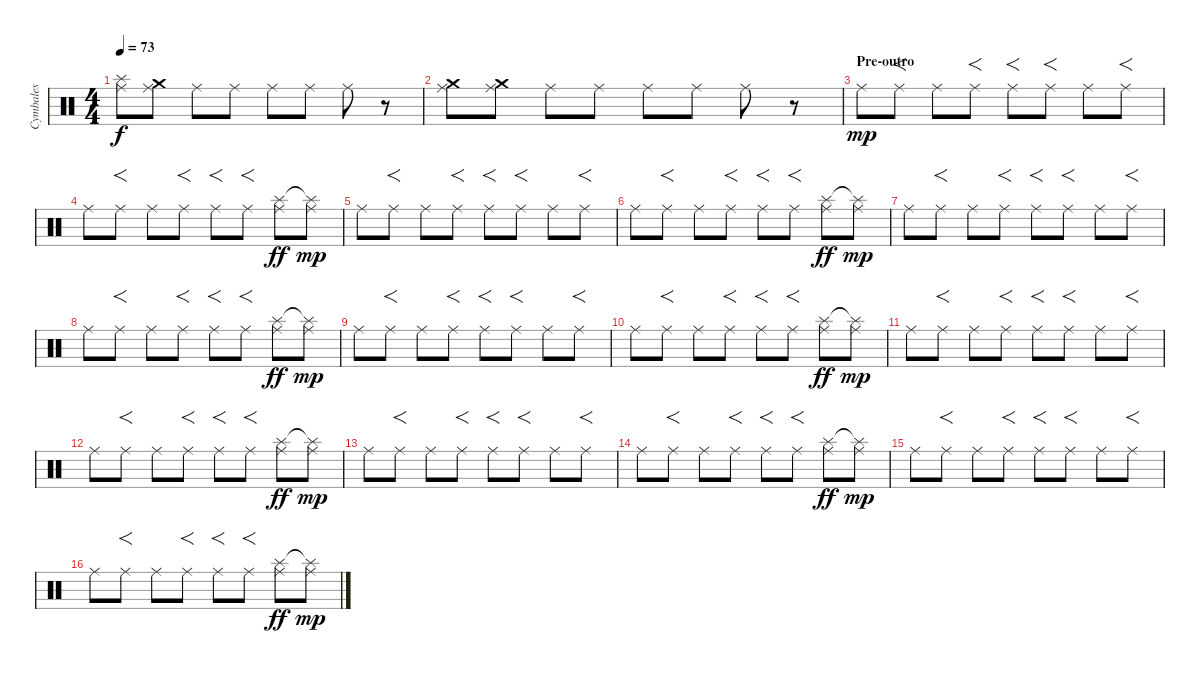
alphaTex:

\track ("Cymbales" "Cymbales") {instrument percussion}
\staff {score}
\articulation defaults
\ts (4 4)
\tempo 73
\clef neutral
\ks c
("Ride (middle)" "Splash (hit)").8{dy f} ("Ride (middle)" "Crash medium (hit)").8 "Ride (middle)".8 "Ride (middle)".8 "Ride (middle)".8 "Ride (middle)".8 "Ride (middle)".8 r.8 |
("Ride (middle)" "Crash medium (hit)").8 ("Ride (middle)" "Crash medium (hit)").8 "Ride (middle)".8 "Ride (middle)".8 "Ride (middle)".8 "Ride (middle)".8 "Ride (middle)".8 r.8 |
\section ("" "Pre-outro")
"Ride (middle)".8{dy mp} "Ride (middle)".8{f} "Ride (middle)".8 "Ride (middle)".8{f} "Ride (middle)".8{f} "Ride (middle)".8{f} "Ride (middle)".8 "Ride (middle)".8{f} |
"Ride (middle)".8 "Ride (middle)".8{f} "Ride (middle)".8 "Ride (middle)".8{f} "Ride (middle)".8{f} "Ride (middle)".8{f} ("Ride (middle)" "Splash (hit)").8{dy ff} ("Ride (middle)" "Splash (hit)"{t}).8{dy mp} |
"Ride (middle)".8 "Ride (middle)".8{f} "Ride (middle)".8 "Ride (middle)".8{f} "Ride (middle)".8{f} "Ride (middle)".8{f} "Ride (middle)".8 "Ride (middle)".8{f} |
"Ride (middle)".8 "Ride (middle)".8{f} "Ride (middle)".8 "Ride (middle)".8{f} "Ride (middle)".8{f} "Ride (middle)".8{f} ("Ride (middle)" "Splash (hit)").8{dy ff} ("Ride (middle)" "Splash (hit)"{t}).8{dy mp} |
"Ride (middle)".8 "Ride (middle)".8{f} "Ride (middle)".8 "Ride (middle)".8{f} "Ride (middle)".8{f} "Ride (middle)".8{f} "Ride (middle)".8 "Ride (middle)".8{f} |
"Ride (middle)".8 "Ride (middle)".8{f} "Ride (middle)".8 "Ride (middle)".8{f} "Ride (middle)".8{f} "Ride (middle)".8{f} ("Ride (middle)" "Splash (hit)").8{dy ff} ("Ride (middle)" "Splash (hit)"{t}).8{dy mp} |
"Ride (middle)".8 "Ride (middle)".8{f} "Ride (middle)".8 "Ride (middle)".8{f} "Ride (middle)".8{f} "Ride (middle)".8{f} "Ride (middle)".8 "Ride (middle)".8{f} |
"Ride (middle)".8 "Ride (middle)".8{f} "Ride (middle)".8 "Ride (middle)".8{f} "Ride (middle)".8{f} "Ride (middle)".8{f} ("Ride (middle)" "Splash (hit)").8{dy ff} ("Ride (middle)" "Splash (hit)"{t}).8{dy mp} |
"Ride (middle)".8 "Ride (middle)".8{f} "Ride (middle)".8 "Ride (middle)".8{f} "Ride (middle)".8{f} "Ride (middle)".8{f} "Ride (middle)".8 "Ride (middle)".8{f} |
"Ride (middle)".8 "Ride (middle)".8{f} "Ride (middle)".8 "Ride (middle)".8{f} "Ride (middle)".8{f} "Ride (middle)".8{f} ("Ride (middle)" "Splash (hit)").8{dy ff} ("Ride (middle)" "Splash (hit)"{t}).8{dy mp} |
"Ride (middle)".8 "Ride (middle)".8{f} "Ride (middle)".8 "Ride (middle)".8{f} "Ride (middle)".8{f} "Ride (middle)".8{f} "Ride (middle)".8 "Ride (middle)".8{f} |
"Ride (middle)".8 "Ride (middle)".8{f} "Ride (middle)".8 "Ride (middle)".8{f} "Ride (middle)".8{f} "Ride (middle)".8{f} ("Ride (middle)" "Splash (hit)").8{dy ff} ("Ride (middle)" "Splash (hit)"{t}).8{dy mp} |
"Ride (middle)".8 "Ride (middle)".8{f} "Ride (middle)".8 "Ride (middle)".8{f} "Ride (middle)".8{f} "Ride (middle)".8{f} "Ride (middle)".8 "Ride (middle)".8{f} |
"Ride (middle)".8 "Ride (middle)".8{f} "Ride (middle)".8 "Ride (middle)".8{f} "Ride (middle)".8{f} "Ride (middle)".8{f} ("Ride (middle)" "Splash (hit)").8{dy ff} ("Ride (middle)" "Splash (hit)"{t}).8{dy mp}
